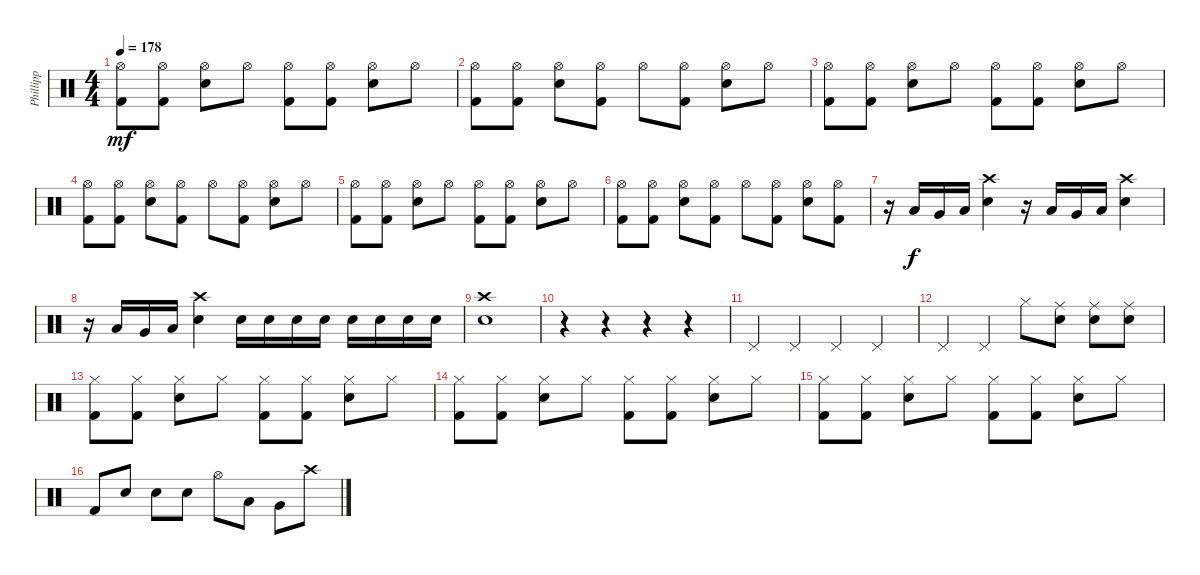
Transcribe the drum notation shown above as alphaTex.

\track ("Phillipp" "Phillipp") {instrument percussion}
\staff {score}
\articulation defaults
\ts (4 4)
\tempo 178
\clef neutral
\ks c
("Hi-Hat (open)" "Kick (hit) 2").8{dy mf} ("Hi-Hat (open)" "Kick (hit) 2").8 ("Hi-Hat (open)" "Electric Snare (hit)").8 "Hi-Hat (open)".8 ("Hi-Hat (open)" "Kick (hit) 2").8 ("Hi-Hat (open)" "Kick (hit) 2").8 ("Hi-Hat (open)" "Electric Snare (hit)").8 "Hi-Hat (open)".8 |
("Hi-Hat (open)" "Kick (hit) 2").8 ("Hi-Hat (open)" "Kick (hit) 2").8 ("Hi-Hat (open)" "Electric Snare (hit)").8 ("Hi-Hat (open)" "Kick (hit) 2").8 "Hi-Hat (open)".8 ("Hi-Hat (open)" "Kick (hit) 2").8 ("Hi-Hat (open)" "Electric Snare (hit)").8 "Hi-Hat (open)".8 |
("Hi-Hat (open)" "Kick (hit) 2").8 ("Hi-Hat (open)" "Kick (hit) 2").8 ("Hi-Hat (open)" "Electric Snare (hit)").8 "Hi-Hat (open)".8 ("Hi-Hat (open)" "Kick (hit) 2").8 ("Hi-Hat (open)" "Kick (hit) 2").8 ("Hi-Hat (open)" "Electric Snare (hit)").8 "Hi-Hat (open)".8 |
("Hi-Hat (open)" "Kick (hit) 2").8 ("Hi-Hat (open)" "Kick (hit) 2").8 ("Hi-Hat (open)" "Electric Snare (hit)").8 ("Hi-Hat (open)" "Kick (hit) 2").8 "Hi-Hat (open)".8 ("Hi-Hat (open)" "Kick (hit) 2").8 ("Hi-Hat (open)" "Electric Snare (hit)").8 "Hi-Hat (open)".8 |
("Hi-Hat (open)" "Kick (hit) 2").8 ("Hi-Hat (open)" "Kick (hit) 2").8 ("Hi-Hat (open)" "Electric Snare (hit)").8 "Hi-Hat (open)".8 ("Hi-Hat (open)" "Kick (hit) 2").8 ("Hi-Hat (open)" "Kick (hit) 2").8 ("Hi-Hat (open)" "Electric Snare (hit)").8 "Hi-Hat (open)".8 |
("Hi-Hat (open)" "Kick (hit) 2").8 ("Hi-Hat (open)" "Kick (hit) 2").8 ("Hi-Hat (open)" "Electric Snare (hit)").8 ("Hi-Hat (open)" "Kick (hit) 2").8 "Hi-Hat (open)".8 ("Hi-Hat (open)" "Kick (hit) 2").8 ("Hi-Hat (open)" "Electric Snare (hit)").8 ("Hi-Hat (open)" "Kick (hit) 2").8 |
r.16 "Low Tom (hit)".16{dy f} "Very Low Tom (hit)".16 "Low Tom (hit)".16 ("Electric Snare (hit)" "Crash high (hit)").4 r.16 "Low Tom (hit)".16 "Very Low Tom (hit)".16 "Low Tom (hit)".16 ("Electric Snare (hit)" "Crash high (hit)").4 |
r.16 "Low Tom (hit)".16 "Very Low Tom (hit)".16 "Low Tom (hit)".16 ("Electric Snare (hit)" "Crash high (hit)").4 "Electric Snare (hit)".16 "Electric Snare (hit)".16 "Electric Snare (hit)".16 "Electric Snare (hit)".16 "Electric Snare (hit)".16 "Electric Snare (hit)".16 "Electric Snare (hit)".16 "Electric Snare (hit)".16 |
("Electric Snare (hit)" "Crash high (hit)").1 |
r.4 r.4 r.4 r.4 |
"Pedal Hi-Hat (hit)".4 "Pedal Hi-Hat (hit)".4 "Pedal Hi-Hat (hit)".4 "Pedal Hi-Hat (hit)".4 |
"Pedal Hi-Hat (hit)".4 "Pedal Hi-Hat (hit)".4 "Hi-Hat (closed)".8 ("Ride (middle)" "Electric Snare (hit)").8 ("Ride (middle)" "Electric Snare (hit)").8 ("Ride (middle)" "Electric Snare (hit)").8 |
("Kick (hit) 2" "Hi-Hat (closed)").8 ("Kick (hit) 2" "Hi-Hat (closed)").8 ("Electric Snare (hit)" "Hi-Hat (closed)").8 "Hi-Hat (closed)".8 ("Kick (hit) 2" "Hi-Hat (closed)").8 ("Kick (hit) 2" "Hi-Hat (closed)").8 ("Electric Snare (hit)" "Hi-Hat (closed)").8 "Hi-Hat (closed)".8 |
("Kick (hit) 2" "Hi-Hat (closed)").8 ("Kick (hit) 2" "Hi-Hat (closed)").8 ("Electric Snare (hit)" "Hi-Hat (closed)").8 "Hi-Hat (closed)".8 ("Kick (hit) 2" "Hi-Hat (closed)").8 ("Kick (hit) 2" "Hi-Hat (closed)").8 ("Electric Snare (hit)" "Hi-Hat (closed)").8 "Hi-Hat (closed)".8 |
("Kick (hit) 2" "Hi-Hat (closed)").8 ("Kick (hit) 2" "Hi-Hat (closed)").8 ("Electric Snare (hit)" "Hi-Hat (closed)").8 "Hi-Hat (closed)".8 ("Kick (hit) 2" "Hi-Hat (closed)").8 ("Kick (hit) 2" "Hi-Hat (closed)").8 ("Electric Snare (hit)" "Hi-Hat (closed)").8 "Hi-Hat (closed)".8 |
"Kick (hit) 2".8 "Electric Snare (hit)".8 "Electric Snare (hit)".8 "Electric Snare (hit)".8 "Hi-Hat (open)".8 "Low Tom (hit)".8 "Very Low Tom (hit)".8 "Crash high (hit)".8
